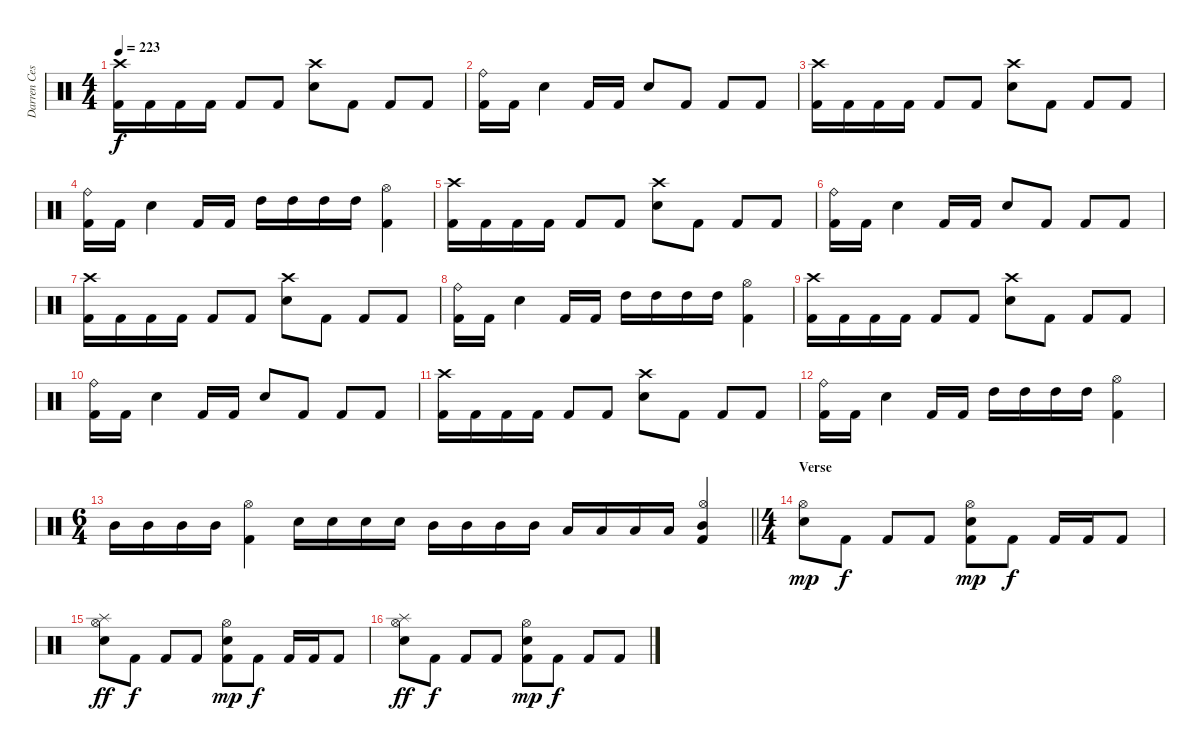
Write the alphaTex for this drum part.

\track ("Darren Cesca" "Darren Ces") {instrument percussion}
\staff {score}
\articulation defaults
\ts (4 4)
\tempo 223
\clef neutral
\ks c
("Crash high (hit)" "Kick (hit) 2").16{dy f} "Kick (hit) 2".16 "Kick (hit) 2".16 "Kick (hit) 2".16 "Kick (hit) 2".8 "Kick (hit) 2".8 ("Crash high (hit)" "Electric Snare (hit)").8 "Kick (hit) 2".8 "Kick (hit) 2".8 "Kick (hit) 2".8 |
("Ride (bell)" "Kick (hit) 2").16 "Kick (hit) 2".16 "Electric Snare (hit)".4 "Kick (hit) 2".16 "Kick (hit) 2".16 "Electric Snare (hit)".8 "Kick (hit) 2".8 "Kick (hit) 2".8 "Kick (hit) 2".8 |
("Crash high (hit)" "Kick (hit) 2").16 "Kick (hit) 2".16 "Kick (hit) 2".16 "Kick (hit) 2".16 "Kick (hit) 2".8 "Kick (hit) 2".8 ("Crash high (hit)" "Electric Snare (hit)").8 "Kick (hit) 2".8 "Kick (hit) 2".8 "Kick (hit) 2".8 |
("Ride (bell)" "Kick (hit) 2").16 "Kick (hit) 2".16 "Electric Snare (hit)".4 "Kick (hit) 2".16 "Kick (hit) 2".16 "High Tom (hit)".16 "High Tom (hit)".16 "High Tom (hit)".16 "High Tom (hit)".16 ("Hi-Hat (open)" "Kick (hit) 2").4 |
("Crash high (hit)" "Kick (hit) 2").16 "Kick (hit) 2".16 "Kick (hit) 2".16 "Kick (hit) 2".16 "Kick (hit) 2".8 "Kick (hit) 2".8 ("Crash high (hit)" "Electric Snare (hit)").8 "Kick (hit) 2".8 "Kick (hit) 2".8 "Kick (hit) 2".8 |
("Ride (bell)" "Kick (hit) 2").16 "Kick (hit) 2".16 "Electric Snare (hit)".4 "Kick (hit) 2".16 "Kick (hit) 2".16 "Electric Snare (hit)".8 "Kick (hit) 2".8 "Kick (hit) 2".8 "Kick (hit) 2".8 |
("Crash high (hit)" "Kick (hit) 2").16 "Kick (hit) 2".16 "Kick (hit) 2".16 "Kick (hit) 2".16 "Kick (hit) 2".8 "Kick (hit) 2".8 ("Crash high (hit)" "Electric Snare (hit)").8 "Kick (hit) 2".8 "Kick (hit) 2".8 "Kick (hit) 2".8 |
("Ride (bell)" "Kick (hit) 2").16 "Kick (hit) 2".16 "Electric Snare (hit)".4 "Kick (hit) 2".16 "Kick (hit) 2".16 "High Tom (hit)".16 "High Tom (hit)".16 "High Tom (hit)".16 "High Tom (hit)".16 ("Hi-Hat (open)" "Kick (hit) 2").4 |
("Crash high (hit)" "Kick (hit) 2").16 "Kick (hit) 2".16 "Kick (hit) 2".16 "Kick (hit) 2".16 "Kick (hit) 2".8 "Kick (hit) 2".8 ("Crash high (hit)" "Electric Snare (hit)").8 "Kick (hit) 2".8 "Kick (hit) 2".8 "Kick (hit) 2".8 |
("Ride (bell)" "Kick (hit) 2").16 "Kick (hit) 2".16 "Electric Snare (hit)".4 "Kick (hit) 2".16 "Kick (hit) 2".16 "Electric Snare (hit)".8 "Kick (hit) 2".8 "Kick (hit) 2".8 "Kick (hit) 2".8 |
("Crash high (hit)" "Kick (hit) 2").16 "Kick (hit) 2".16 "Kick (hit) 2".16 "Kick (hit) 2".16 "Kick (hit) 2".8 "Kick (hit) 2".8 ("Crash high (hit)" "Electric Snare (hit)").8 "Kick (hit) 2".8 "Kick (hit) 2".8 "Kick (hit) 2".8 |
("Ride (bell)" "Kick (hit) 2").16 "Kick (hit) 2".16 "Electric Snare (hit)".4 "Kick (hit) 2".16 "Kick (hit) 2".16 "High Tom (hit)".16 "High Tom (hit)".16 "High Tom (hit)".16 "High Tom (hit)".16 ("Hi-Hat (open)" "Kick (hit) 2").4 |
\ts (6 4)
\barLineRight lightlight "Mid Tom (hit)".16 "Mid Tom (hit)".16 "Mid Tom (hit)".16 "Mid Tom (hit)".16
("Hi-Hat (open)" "Kick (hit) 2").4 "Electric Snare (hit)".16 "Electric Snare (hit)".16 "Electric Snare (hit)".16 "Electric Snare (hit)".16 "Mid Tom (hit)".16 "Mid Tom (hit)".16 "Mid Tom (hit)".16 "Mid Tom (hit)".16 "Low Tom (hit)".16 "Low Tom (hit)".16 "Low Tom (hit)".16 "Low Tom (hit)".16 ("Hi-Hat (open)" "Mid Tom (hit)" "Kick (hit) 2").4 |
\ts (4 4)
\section ("" "Verse")
("Hi-Hat (open)" "Electric Snare (hit)").8{dy mp} "Kick (hit) 2".8{dy f} "Kick (hit) 2".8 "Kick (hit) 2".8 ("Hi-Hat (open)" "Electric Snare (hit)" "Kick (hit) 2").8{dy mp} "Kick (hit) 2".8{dy f} "Kick (hit) 2".16 "Kick (hit) 2".16 "Kick (hit) 2".8 |
("Hi-Hat (open)" "Splash (hit)" "Electric Snare (hit)").8{dy ff} "Kick (hit) 2".8{dy f} "Kick (hit) 2".8 "Kick (hit) 2".8 ("Hi-Hat (open)" "Electric Snare (hit)" "Kick (hit) 2").8{dy mp} "Kick (hit) 2".8{dy f} "Kick (hit) 2".16 "Kick (hit) 2".16 "Kick (hit) 2".8 |
("Hi-Hat (open)" "Splash (hit)" "Electric Snare (hit)").8{dy ff} "Kick (hit) 2".8{dy f} "Kick (hit) 2".8 "Kick (hit) 2".8 ("Hi-Hat (open)" "Electric Snare (hit)" "Kick (hit) 2").8{dy mp} "Kick (hit) 2".8{dy f} "Kick (hit) 2".8 "Kick (hit) 2".8
